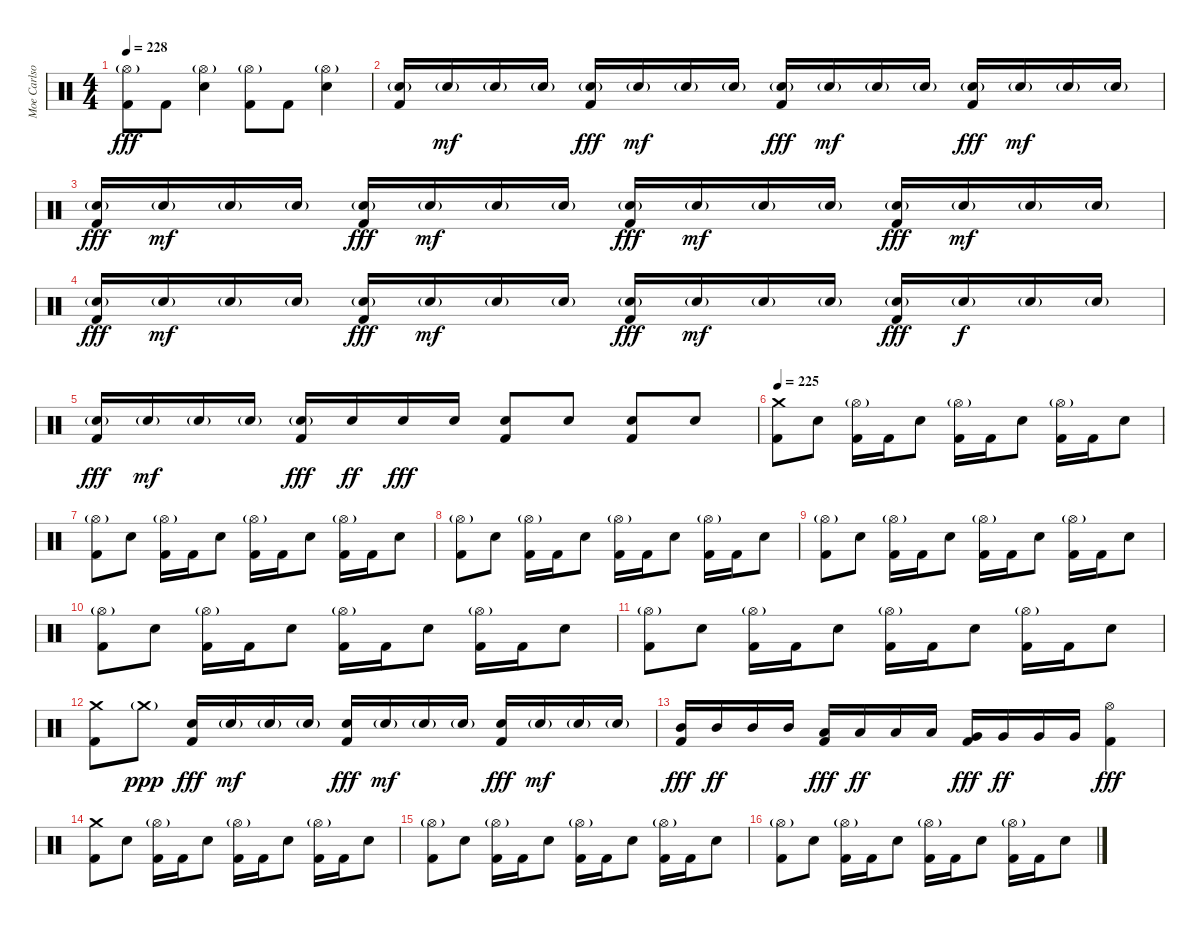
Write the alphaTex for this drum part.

\track ("Moe Carlson" "Moe Carlso") {instrument percussion}
\staff {score}
\articulation defaults
\ts (4 4)
\tempo 228
\clef neutral
\ks c
("Hi-Hat (open)"{g} "Kick (hit) 2").8{dy fff} "Kick (hit) 2".8 ("Hi-Hat (open)"{g} "Electric Snare (hit)").4 ("Hi-Hat (open)"{g} "Kick (hit) 2").8 "Kick (hit) 2".8 ("Hi-Hat (open)"{g} "Electric Snare (hit)").4 |
("Electric Snare (hit)"{g} "Kick (hit) 2").16 "Electric Snare (hit)"{g}.16{dy mf} "Electric Snare (hit)"{g}.16 "Electric Snare (hit)"{g}.16 ("Electric Snare (hit)"{g} "Kick (hit) 2").16{dy fff} "Electric Snare (hit)"{g}.16{dy mf} "Electric Snare (hit)"{g}.16 "Electric Snare (hit)"{g}.16 ("Electric Snare (hit)"{g} "Kick (hit) 2").16{dy fff} "Electric Snare (hit)"{g}.16{dy mf} "Electric Snare (hit)"{g}.16 "Electric Snare (hit)"{g}.16 ("Electric Snare (hit)"{g} "Kick (hit) 2").16{dy fff} "Electric Snare (hit)"{g}.16{dy mf} "Electric Snare (hit)"{g}.16 "Electric Snare (hit)"{g}.16 |
("Electric Snare (hit)"{g} "Kick (hit) 2").16{dy fff} "Electric Snare (hit)"{g}.16{dy mf} "Electric Snare (hit)"{g}.16 "Electric Snare (hit)"{g}.16 ("Electric Snare (hit)"{g} "Kick (hit) 2").16{dy fff} "Electric Snare (hit)"{g}.16{dy mf} "Electric Snare (hit)"{g}.16 "Electric Snare (hit)"{g}.16 ("Electric Snare (hit)"{g} "Kick (hit) 2").16{dy fff} "Electric Snare (hit)"{g}.16{dy mf} "Electric Snare (hit)"{g}.16 "Electric Snare (hit)"{g}.16 ("Electric Snare (hit)"{g} "Kick (hit) 2").16{dy fff} "Electric Snare (hit)"{g}.16{dy mf} "Electric Snare (hit)"{g}.16 "Electric Snare (hit)"{g}.16 |
("Electric Snare (hit)"{g} "Kick (hit) 2").16{dy fff} "Electric Snare (hit)"{g}.16{dy mf} "Electric Snare (hit)"{g}.16 "Electric Snare (hit)"{g}.16 ("Electric Snare (hit)"{g} "Kick (hit) 2").16{dy fff} "Electric Snare (hit)"{g}.16{dy mf} "Electric Snare (hit)"{g}.16 "Electric Snare (hit)"{g}.16 ("Electric Snare (hit)"{g} "Kick (hit) 2").16{dy fff} "Electric Snare (hit)"{g}.16{dy mf} "Electric Snare (hit)"{g}.16 "Electric Snare (hit)"{g}.16 ("Electric Snare (hit)"{g} "Kick (hit) 2").16{dy fff} "Electric Snare (hit)"{g}.16{dy f} "Electric Snare (hit)"{g}.16 "Electric Snare (hit)"{g}.16 |
("Electric Snare (hit)"{g} "Kick (hit) 2").16{dy fff} "Electric Snare (hit)"{g}.16{dy mf} "Electric Snare (hit)"{g}.16 "Electric Snare (hit)"{g}.16 ("Electric Snare (hit)"{g} "Kick (hit) 2").16{dy fff} "Electric Snare (hit)".16{dy ff} "Electric Snare (hit)".16{dy fff} "Electric Snare (hit)".16 ("Electric Snare (hit)" "Kick (hit) 2").8 "Electric Snare (hit)".8 ("Electric Snare (hit)" "Kick (hit) 2").8 "Electric Snare (hit)".8 |
\tempo 225
("Crash medium (hit)" "Kick (hit) 2").8 "Electric Snare (hit)".8 ("Hi-Hat (open)"{g} "Kick (hit) 2").16 "Kick (hit) 2".16 "Electric Snare (hit)".8 ("Hi-Hat (open)"{g} "Kick (hit) 2").16 "Kick (hit) 2".16 "Electric Snare (hit)".8 ("Hi-Hat (open)"{g} "Kick (hit) 2").16 "Kick (hit) 2".16 "Electric Snare (hit)".8 |
("Hi-Hat (open)"{g} "Kick (hit) 2").8 "Electric Snare (hit)".8 ("Hi-Hat (open)"{g} "Kick (hit) 2").16 "Kick (hit) 2".16 "Electric Snare (hit)".8 ("Hi-Hat (open)"{g} "Kick (hit) 2").16 "Kick (hit) 2".16 "Electric Snare (hit)".8 ("Hi-Hat (open)"{g} "Kick (hit) 2").16 "Kick (hit) 2".16 "Electric Snare (hit)".8 |
("Hi-Hat (open)"{g} "Kick (hit) 2").8 "Electric Snare (hit)".8 ("Hi-Hat (open)"{g} "Kick (hit) 2").16 "Kick (hit) 2".16 "Electric Snare (hit)".8 ("Hi-Hat (open)"{g} "Kick (hit) 2").16 "Kick (hit) 2".16 "Electric Snare (hit)".8 ("Hi-Hat (open)"{g} "Kick (hit) 2").16 "Kick (hit) 2".16 "Electric Snare (hit)".8 |
("Hi-Hat (open)"{g} "Kick (hit) 2").8 "Electric Snare (hit)".8 ("Hi-Hat (open)"{g} "Kick (hit) 2").16 "Kick (hit) 2".16 "Electric Snare (hit)".8 ("Hi-Hat (open)"{g} "Kick (hit) 2").16 "Kick (hit) 2".16 "Electric Snare (hit)".8 ("Hi-Hat (open)"{g} "Kick (hit) 2").16 "Kick (hit) 2".16 "Electric Snare (hit)".8 |
("Hi-Hat (open)"{g} "Kick (hit) 2").8 "Electric Snare (hit)".8 ("Hi-Hat (open)"{g} "Kick (hit) 2").16 "Kick (hit) 2".16 "Electric Snare (hit)".8 ("Hi-Hat (open)"{g} "Kick (hit) 2").16 "Kick (hit) 2".16 "Electric Snare (hit)".8 ("Hi-Hat (open)"{g} "Kick (hit) 2").16 "Kick (hit) 2".16 "Electric Snare (hit)".8 |
("Hi-Hat (open)"{g} "Kick (hit) 2").8 "Electric Snare (hit)".8 ("Hi-Hat (open)"{g} "Kick (hit) 2").16 "Kick (hit) 2".16 "Electric Snare (hit)".8 ("Hi-Hat (open)"{g} "Kick (hit) 2").16 "Kick (hit) 2".16 "Electric Snare (hit)".8 ("Hi-Hat (open)"{g} "Kick (hit) 2").16 "Kick (hit) 2".16 "Electric Snare (hit)".8 |
("Crash medium (hit)" "Kick (hit) 2").8 "Crash medium (hit)"{g}.8{dy ppp} ("Electric Snare (hit)" "Kick (hit) 2").16{dy fff} "Electric Snare (hit)"{g}.16{dy mf} "Electric Snare (hit)"{g}.16 "Electric Snare (hit)"{g}.16 ("Electric Snare (hit)" "Kick (hit) 2").16{dy fff} "Electric Snare (hit)"{g}.16{dy mf} "Electric Snare (hit)"{g}.16 "Electric Snare (hit)"{g}.16 ("Electric Snare (hit)" "Kick (hit) 2").16{dy fff} "Electric Snare (hit)"{g}.16{dy mf} "Electric Snare (hit)"{g}.16 "Electric Snare (hit)"{g}.16 |
("Mid Tom (hit)" "Kick (hit) 2").16{dy fff} "Mid Tom (hit)".16{dy ff} "Mid Tom (hit)".16 "Mid Tom (hit)".16 ("Low Tom (hit)" "Kick (hit) 2").16{dy fff} "Low Tom (hit)".16{dy ff} "Low Tom (hit)".16 "Low Tom (hit)".16 ("Very Low Tom (hit)" "Kick (hit) 2").16{dy fff} "Very Low Tom (hit)".16{dy ff} "Very Low Tom (hit)".16 "Very Low Tom (hit)".16 ("Hi-Hat (open)" "Kick (hit) 2").4{dy fff} |
("Crash medium (hit)" "Kick (hit) 2").8 "Electric Snare (hit)".8 ("Hi-Hat (open)"{g} "Kick (hit) 2").16 "Kick (hit) 2".16 "Electric Snare (hit)".8 ("Hi-Hat (open)"{g} "Kick (hit) 2").16 "Kick (hit) 2".16 "Electric Snare (hit)".8 ("Hi-Hat (open)"{g} "Kick (hit) 2").16 "Kick (hit) 2".16 "Electric Snare (hit)".8 |
("Hi-Hat (open)"{g} "Kick (hit) 2").8 "Electric Snare (hit)".8 ("Hi-Hat (open)"{g} "Kick (hit) 2").16 "Kick (hit) 2".16 "Electric Snare (hit)".8 ("Hi-Hat (open)"{g} "Kick (hit) 2").16 "Kick (hit) 2".16 "Electric Snare (hit)".8 ("Hi-Hat (open)"{g} "Kick (hit) 2").16 "Kick (hit) 2".16 "Electric Snare (hit)".8 |
("Hi-Hat (open)"{g} "Kick (hit) 2").8 "Electric Snare (hit)".8 ("Hi-Hat (open)"{g} "Kick (hit) 2").16 "Kick (hit) 2".16 "Electric Snare (hit)".8 ("Hi-Hat (open)"{g} "Kick (hit) 2").16 "Kick (hit) 2".16 "Electric Snare (hit)".8 ("Hi-Hat (open)"{g} "Kick (hit) 2").16 "Kick (hit) 2".16 "Electric Snare (hit)".8
